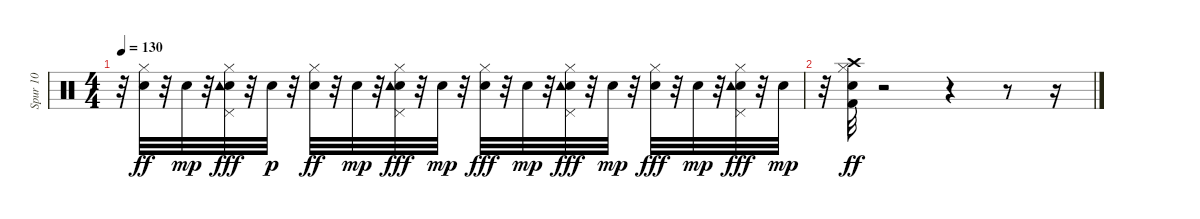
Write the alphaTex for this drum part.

\track ("Spur 10" "Spur 10") {instrument percussion}
\staff {score}
\articulation defaults
\ts (4 4)
\tempo 130
\clef neutral
\ks c
r.32{dy mp} ("Electric Snare (hit)" "Hi-Hat (closed)").32{dy ff} r.32 "Electric Snare (hit)".32{dy mp} r.32 ("Electric Snare (hit)" "Tambourine (hit)" "Hi-Hat (closed)" "Pedal Hi-Hat (hit)").32{dy fff} r.32 "Electric Snare (hit)".32{dy p} r.32 ("Electric Snare (hit)" "Hi-Hat (closed)").32{dy ff} r.32 "Electric Snare (hit)".32{dy mp} r.32 ("Electric Snare (hit)" "Tambourine (hit)" "Hi-Hat (closed)" "Pedal Hi-Hat (hit)").32{dy fff} r.32 "Electric Snare (hit)".32{dy mp} r.32 ("Electric Snare (hit)" "Hi-Hat (closed)").32{dy fff} r.32 "Electric Snare (hit)".32{dy mp} r.32 ("Electric Snare (hit)" "Tambourine (hit)" "Hi-Hat (closed)" "Pedal Hi-Hat (hit)").32{dy fff} r.32 "Electric Snare (hit)".32{dy mp} r.32 ("Electric Snare (hit)" "Hi-Hat (closed)").32{dy fff} r.32 "Electric Snare (hit)".32{dy mp} r.32 ("Electric Snare (hit)" "Tambourine (hit)" "Hi-Hat (closed)" "Pedal Hi-Hat (hit)").32{dy fff} r.32 "Electric Snare (hit)".32{dy mp} |
r.32 ("Kick (hit) 2" "Crash high (hit)" "Electric Snare (hit)" "Hi-Hat (closed)").32{dy ff} r.2 r.4 r.8 r.16
